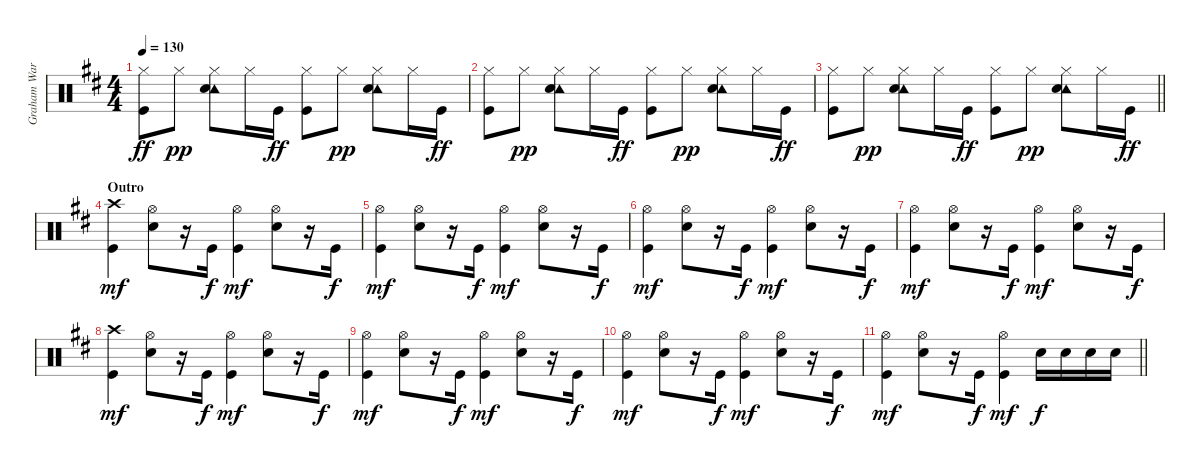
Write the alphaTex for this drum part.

\track ("Graham Ward (DRUMS)" "Graham War") {instrument percussion}
\staff {score}
\articulation defaults
\ts (4 4)
\tempo 130
\clef neutral
\ks d
("Hi-Hat (closed)" "Kick (hit)").8{dy ff} "Hi-Hat (closed)".8{dy pp} ("Tambourine (hit)" "Snare (hit) 2" "Hi-Hat (closed)").8 "Hi-Hat (closed)".16 "Kick (hit)".16{dy ff} ("Hi-Hat (closed)" "Kick (hit)").8 "Hi-Hat (closed)".8{dy pp} ("Tambourine (hit)" "Snare (hit) 2" "Hi-Hat (closed)").8 "Hi-Hat (closed)".16 "Kick (hit)".16{dy ff} |
("Hi-Hat (closed)" "Kick (hit)").8 "Hi-Hat (closed)".8{dy pp} ("Tambourine (hit)" "Snare (hit) 2" "Hi-Hat (closed)").8 "Hi-Hat (closed)".16 "Kick (hit)".16{dy ff} ("Hi-Hat (closed)" "Kick (hit)").8 "Hi-Hat (closed)".8{dy pp} ("Tambourine (hit)" "Snare (hit) 2" "Hi-Hat (closed)").8 "Hi-Hat (closed)".16 "Kick (hit)".16{dy ff} |
\barLineRight lightlight
("Hi-Hat (closed)" "Kick (hit)").8 "Hi-Hat (closed)".8{dy pp} ("Tambourine (hit)" "Snare (hit) 2" "Hi-Hat (closed)").8 "Hi-Hat (closed)".16 "Kick (hit)".16{dy ff} ("Hi-Hat (closed)" "Kick (hit)").8 "Hi-Hat (closed)".8{dy pp} ("Tambourine (hit)" "Snare (hit) 2" "Hi-Hat (closed)").8 "Hi-Hat (closed)".16 "Kick (hit)".16{dy ff} |
\section ("" "Outro")
("Crash high (hit)" "Kick (hit)").4{dy mf} ("Snare (hit) 2" "Hi-Hat (open)").8 r.16 "Kick (hit)".16{dy f} ("Hi-Hat (open)" "Kick (hit)").4{dy mf} ("Snare (hit) 2" "Hi-Hat (open)").8 r.16 "Kick (hit)".16{dy f} |
("Hi-Hat (open)" "Kick (hit)").4{dy mf} ("Snare (hit) 2" "Hi-Hat (open)").8 r.16 "Kick (hit)".16{dy f} ("Hi-Hat (open)" "Kick (hit)").4{dy mf} ("Snare (hit) 2" "Hi-Hat (open)").8 r.16 "Kick (hit)".16{dy f} |
("Hi-Hat (open)" "Kick (hit)").4{dy mf} ("Snare (hit) 2" "Hi-Hat (open)").8 r.16 "Kick (hit)".16{dy f} ("Hi-Hat (open)" "Kick (hit)").4{dy mf} ("Snare (hit) 2" "Hi-Hat (open)").8 r.16 "Kick (hit)".16{dy f} |
("Hi-Hat (open)" "Kick (hit)").4{dy mf} ("Snare (hit) 2" "Hi-Hat (open)").8 r.16 "Kick (hit)".16{dy f} ("Hi-Hat (open)" "Kick (hit)").4{dy mf} ("Snare (hit) 2" "Hi-Hat (open)").8 r.16 "Kick (hit)".16{dy f} |
("Crash high (hit)" "Kick (hit)").4{dy mf} ("Snare (hit) 2" "Hi-Hat (open)").8 r.16 "Kick (hit)".16{dy f} ("Hi-Hat (open)" "Kick (hit)").4{dy mf} ("Snare (hit) 2" "Hi-Hat (open)").8 r.16 "Kick (hit)".16{dy f} |
("Hi-Hat (open)" "Kick (hit)").4{dy mf} ("Snare (hit) 2" "Hi-Hat (open)").8 r.16 "Kick (hit)".16{dy f} ("Hi-Hat (open)" "Kick (hit)").4{dy mf} ("Snare (hit) 2" "Hi-Hat (open)").8 r.16 "Kick (hit)".16{dy f} |
("Hi-Hat (open)" "Kick (hit)").4{dy mf} ("Snare (hit) 2" "Hi-Hat (open)").8 r.16 "Kick (hit)".16{dy f} ("Hi-Hat (open)" "Kick (hit)").4{dy mf} ("Snare (hit) 2" "Hi-Hat (open)").8 r.16 "Kick (hit)".16{dy f} |
\barLineRight lightlight
("Hi-Hat (open)" "Kick (hit)").4{dy mf} ("Snare (hit) 2" "Hi-Hat (open)").8 r.16 "Kick (hit)".16{dy f} ("Hi-Hat (open)" "Kick (hit)").4{dy mf} "Snare (hit) 2".16{dy f} "Snare (hit) 2".16 "Snare (hit) 2".16 "Snare (hit) 2".16
